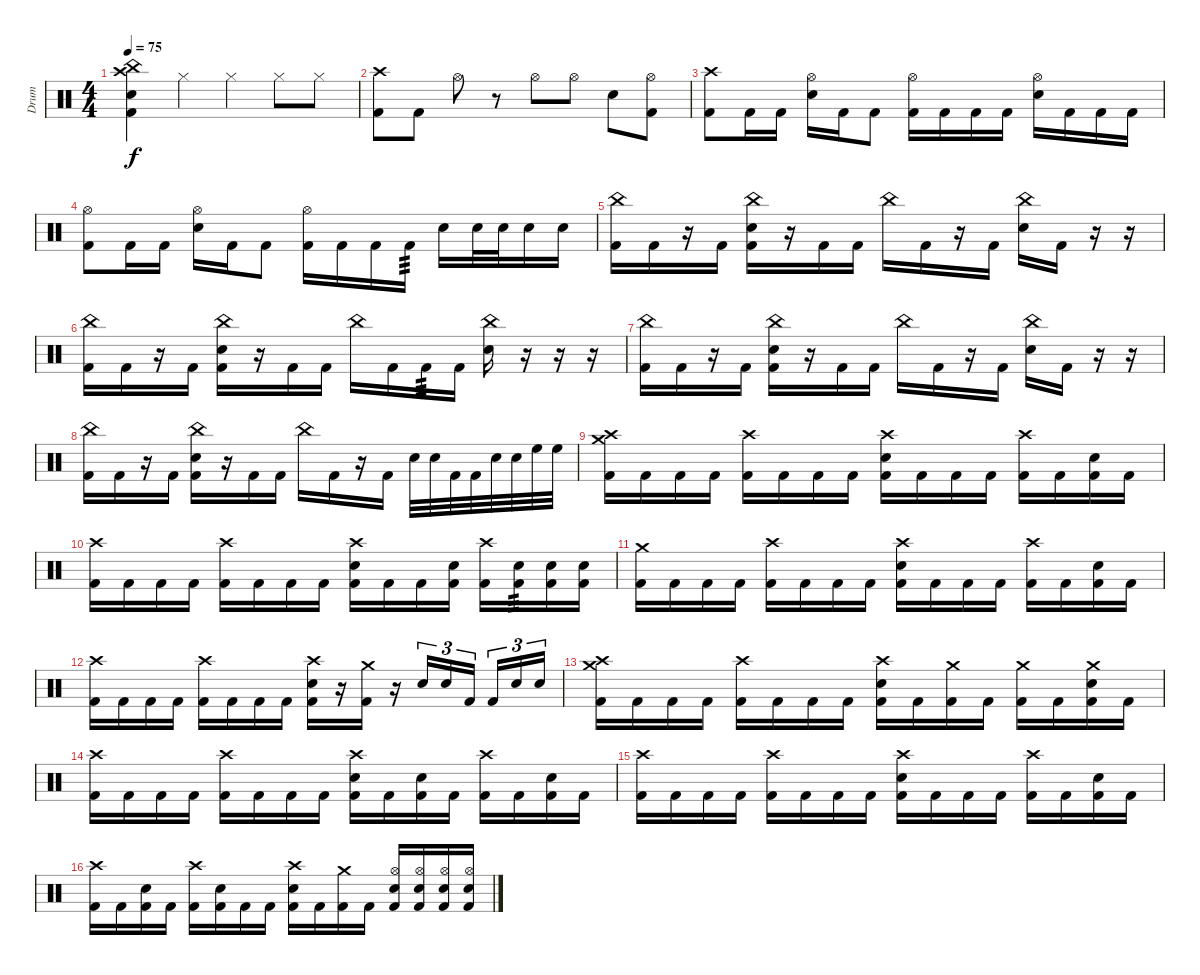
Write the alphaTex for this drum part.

\track ("Drum" "Drum") {instrument percussion}
\staff {score}
\articulation defaults
\ts (4 4)
\tempo 75
\clef neutral
\ks c
("China (hit)" "Crash high (hit)" "Snare (hit) 2" "Kick (hit) 2").4{dy f} "Hi-Hat (closed)".4 "Hi-Hat (closed)".4 "Hi-Hat (closed)".8 "Hi-Hat (closed)".8 |
("Crash high (hit)" "Kick (hit) 2").8 "Kick (hit) 2".8 "Hi-Hat (open)".8 r.8 "Hi-Hat (open)".8 "Hi-Hat (open)".8 "Snare (hit) 2".8 ("Hi-Hat (open)" "Kick (hit) 2").8 |
("Crash high (hit)" "Kick (hit) 2").8 "Kick (hit) 2".16 "Kick (hit) 2".16 ("Hi-Hat (open)" "Snare (hit) 2").16 "Kick (hit) 2".16 "Kick (hit) 2".8 ("Hi-Hat (open)" "Kick (hit) 2"{x}).16 "Kick (hit) 2".16 "Kick (hit) 2".16 "Kick (hit) 2".16 ("Hi-Hat (open)" "Snare (hit) 2").16 "Kick (hit) 2".16 "Kick (hit) 2".16 "Kick (hit) 2".16 |
("Hi-Hat (open)" "Kick (hit) 2").8 "Kick (hit) 2".16 "Kick (hit) 2".16 ("Hi-Hat (open)" "Snare (hit) 2").16 "Kick (hit) 2".16 "Kick (hit) 2".8 ("Hi-Hat (open)" "Kick (hit) 2"{x}).16 "Kick (hit) 2".16 "Kick (hit) 2".16 "Kick (hit) 2".16{tp 3} "Snare (hit) 2".16 "Snare (hit) 2".32 "Snare (hit) 2".32 "Snare (hit) 2".16 "Snare (hit) 2".16 |
("China (hit)" "Kick (hit) 2").16 "Kick (hit) 2".16 r.16 "Kick (hit) 2".16 ("China (hit)" "Snare (hit) 2" "Kick (hit) 2").16 r.16 "Kick (hit) 2".16 "Kick (hit) 2".16 "China (hit)".16 "Kick (hit) 2".16 r.16 "Kick (hit) 2".16 ("China (hit)" "Snare (hit) 2").16 "Kick (hit) 2".16 r.16 r.16 |
("China (hit)" "Kick (hit) 2").16 "Kick (hit) 2".16 r.16 "Kick (hit) 2".16 ("China (hit)" "Snare (hit) 2" "Kick (hit) 2").16 r.16 "Kick (hit) 2".16 "Kick (hit) 2".16 "China (hit)".16 "Kick (hit) 2".16 "Kick (hit) 2".16{tp 3} "Kick (hit) 2".16 ("China (hit)" "Snare (hit) 2").16 r.16 r.16 r.16 |
("China (hit)" "Kick (hit) 2").16 "Kick (hit) 2".16 r.16 "Kick (hit) 2".16 ("China (hit)" "Snare (hit) 2" "Kick (hit) 2").16 r.16 "Kick (hit) 2".16 "Kick (hit) 2".16 "China (hit)".16 "Kick (hit) 2".16 r.16 "Kick (hit) 2".16 ("China (hit)" "Snare (hit) 2").16 "Kick (hit) 2".16 r.16 r.16 |
("China (hit)" "Kick (hit) 2").16 "Kick (hit) 2".16 r.16 "Kick (hit) 2".16 ("China (hit)" "Snare (hit) 2" "Kick (hit) 2").16 r.16 "Kick (hit) 2".16 "Kick (hit) 2".16 "China (hit)".16 "Kick (hit) 2".16 r.16 "Kick (hit) 2".16 "Snare (hit) 2".32 "Snare (hit) 2".32 "Kick (hit) 2".32 "Kick (hit) 2".32 "Snare (hit) 2".32 "Snare (hit) 2".32 "High Floor Tom (hit)".32 "High Floor Tom (hit)".32 |
("Crash high (hit)" "Crash medium (hit)" "Kick (hit) 2").16 "Kick (hit) 2".16 "Kick (hit) 2".16 "Kick (hit) 2".16 ("Crash high (hit)" "Kick (hit) 2").16 "Kick (hit) 2".16 "Kick (hit) 2".16 "Kick (hit) 2".16 ("Crash high (hit)" "Electric Snare (hit)" "Kick (hit) 2").16 "Kick (hit) 2".16 "Kick (hit) 2".16 "Kick (hit) 2".16 ("Crash high (hit)" "Kick (hit) 2").16 "Kick (hit) 2".16 ("Electric Snare (hit)" "Kick (hit) 2").16 "Kick (hit) 2".16 |
("Crash high (hit)" "Kick (hit) 2").16 "Kick (hit) 2".16 "Kick (hit) 2".16 "Kick (hit) 2".16 ("Crash high (hit)" "Kick (hit) 2").16 "Kick (hit) 2".16 "Kick (hit) 2".16 "Kick (hit) 2".16 ("Crash high (hit)" "Electric Snare (hit)" "Kick (hit) 2").16 "Kick (hit) 2".16 "Kick (hit) 2".16 ("Electric Snare (hit)" "Kick (hit) 2").16 ("Crash high (hit)" "Kick (hit) 2").16 ("Electric Snare (hit)" "Kick (hit) 2").16{tp 3} ("Electric Snare (hit)" "Kick (hit) 2").16 ("Electric Snare (hit)" "Kick (hit) 2").16 |
("Crash medium (hit)" "Kick (hit) 2").16 "Kick (hit) 2".16 "Kick (hit) 2".16 "Kick (hit) 2".16 ("Crash high (hit)" "Kick (hit) 2").16 "Kick (hit) 2".16 "Kick (hit) 2".16 "Kick (hit) 2".16 ("Crash high (hit)" "Electric Snare (hit)" "Kick (hit) 2").16 "Kick (hit) 2".16 "Kick (hit) 2".16 "Kick (hit) 2".16 ("Crash high (hit)" "Kick (hit) 2").16 "Kick (hit) 2".16 ("Electric Snare (hit)" "Kick (hit) 2").16 "Kick (hit) 2".16 |
("Crash high (hit)" "Kick (hit) 2").16 "Kick (hit) 2".16 "Kick (hit) 2".16 "Kick (hit) 2".16 ("Crash high (hit)" "Kick (hit) 2").16 "Kick (hit) 2".16 "Kick (hit) 2".16 "Kick (hit) 2".16 ("Crash high (hit)" "Electric Snare (hit)" "Kick (hit) 2").16 r.16 ("Crash medium (hit)" "Kick (hit) 2").16 r.16 "Snare (hit) 2".16{tu (3 2)} "Snare (hit) 2".16{tu (3 2)} "Kick (hit) 2".16{tu (3 2) beam splitsecondary} "Kick (hit) 2".16{tu (3 2)} "Snare (hit) 2".16{tu (3 2)} "Snare (hit) 2".16{tu (3 2)} |
("Crash high (hit)" "Crash medium (hit)" "Kick (hit) 2").16 "Kick (hit) 2".16 "Kick (hit) 2".16 "Kick (hit) 2".16 ("Crash high (hit)" "Kick (hit) 2").16 "Kick (hit) 2".16 "Kick (hit) 2".16 "Kick (hit) 2".16 ("Crash high (hit)" "Electric Snare (hit)" "Kick (hit) 2").16 "Kick (hit) 2".16 ("Crash medium (hit)" "Kick (hit) 2").16 "Kick (hit) 2".16 ("Crash medium (hit)" "Kick (hit) 2").16 "Kick (hit) 2".16 ("Crash medium (hit)" "Electric Snare (hit)" "Kick (hit) 2").16 "Kick (hit) 2".16 |
("Crash high (hit)" "Kick (hit) 2").16 "Kick (hit) 2".16 "Kick (hit) 2".16 "Kick (hit) 2".16 ("Crash high (hit)" "Kick (hit) 2").16 "Kick (hit) 2".16 "Kick (hit) 2".16 "Kick (hit) 2".16 ("Crash high (hit)" "Electric Snare (hit)" "Kick (hit) 2").16 "Kick (hit) 2".16 ("Electric Snare (hit)" "Kick (hit) 2").16 "Kick (hit) 2".16 ("Crash high (hit)" "Kick (hit) 2").16 "Kick (hit) 2".16 ("Electric Snare (hit)" "Kick (hit) 2").16 "Kick (hit) 2".16 |
("Crash high (hit)" "Kick (hit) 2").16 "Kick (hit) 2".16 "Kick (hit) 2".16 "Kick (hit) 2".16 ("Crash high (hit)" "Kick (hit) 2").16 "Kick (hit) 2".16 "Kick (hit) 2".16 "Kick (hit) 2".16 ("Crash high (hit)" "Electric Snare (hit)" "Kick (hit) 2").16 "Kick (hit) 2".16 "Kick (hit) 2".16 "Kick (hit) 2".16 ("Crash high (hit)" "Kick (hit) 2").16 "Kick (hit) 2".16 ("Electric Snare (hit)" "Kick (hit) 2").16 "Kick (hit) 2".16 |
("Crash high (hit)" "Kick (hit) 2").16 "Kick (hit) 2".16 ("Electric Snare (hit)" "Kick (hit) 2").16 "Kick (hit) 2".16 ("Crash high (hit)" "Kick (hit) 2").16 ("Electric Snare (hit)" "Kick (hit) 2").16 "Kick (hit) 2".16 "Kick (hit) 2".16 ("Crash high (hit)" "Electric Snare (hit)" "Kick (hit) 2").16 "Kick (hit) 2".16 ("Crash medium (hit)" "Kick (hit) 2").16 "Kick (hit) 2".16 ("Hi-Hat (open)" "Electric Snare (hit)" "Kick (hit) 2").16 ("Hi-Hat (open)" "Electric Snare (hit)" "Kick (hit) 2").16 ("Hi-Hat (open)" "Electric Snare (hit)" "Kick (hit) 2").16 ("Hi-Hat (open)" "Electric Snare (hit)" "Kick (hit) 2").16
